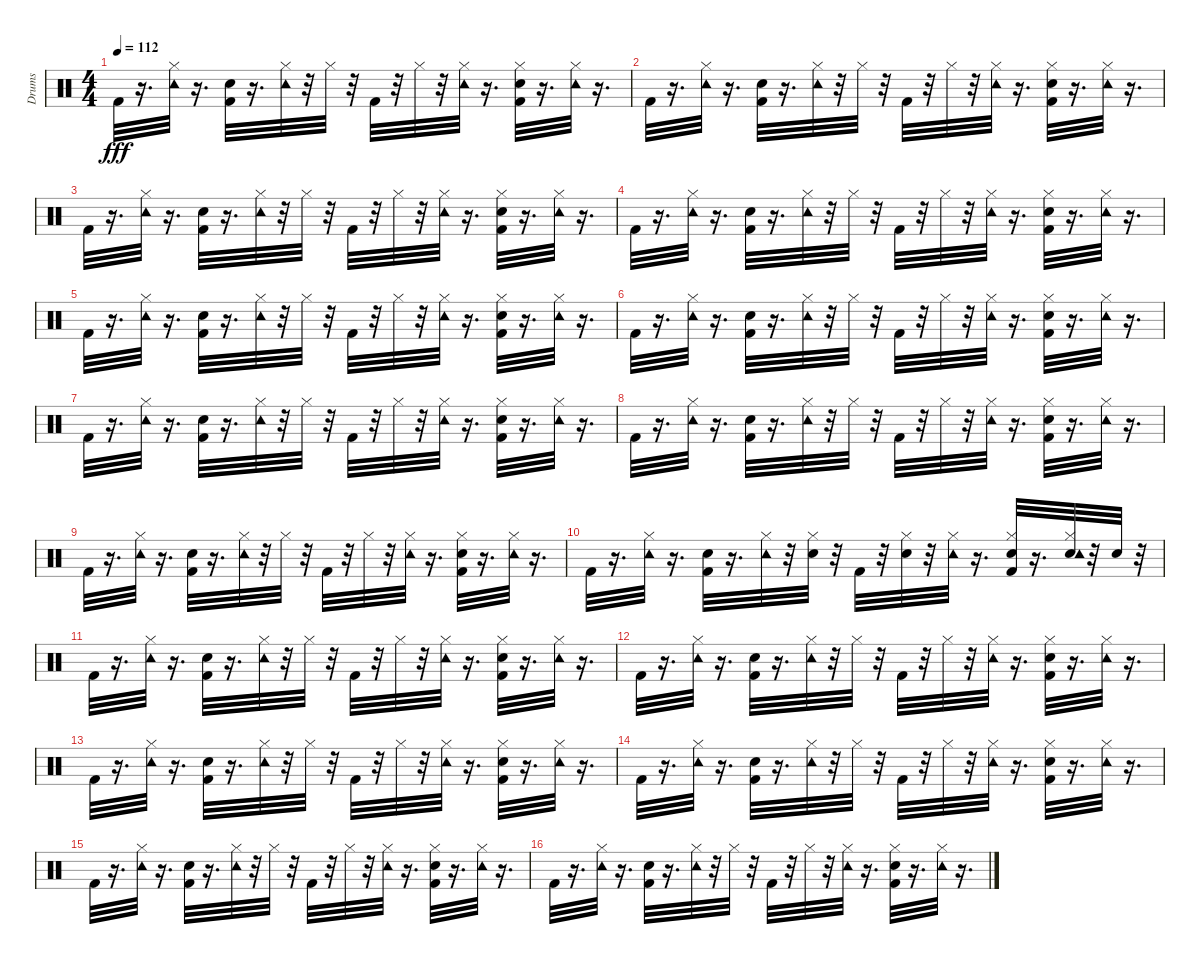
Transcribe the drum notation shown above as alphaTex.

\track ("Drums" "Drums") {instrument percussion}
\staff {score}
\articulation defaults
\ts (4 4)
\tempo 112
\clef neutral
\ks c "Kick (hit) 2".32{dy fff}
r.16{d} ("Tambourine (hit)" "Hi-Hat (closed)").32 r.16{d} ("Snare (hit) 2" "Kick (hit) 2").32 r.16{d} ("Tambourine (hit)" "Hi-Hat (closed)").32 r.32 "Hi-Hat (closed)".32 r.32 "Kick (hit) 2".32 r.32 "Hi-Hat (closed)".32 r.32 ("Tambourine (hit)" "Hi-Hat (closed)").32 r.16{d} ("Snare (hit) 2" "Hi-Hat (closed)" "Kick (hit) 2").32 r.16{d} ("Tambourine (hit)" "Hi-Hat (closed)").32 r.16{d} |
"Kick (hit) 2".32 r.16{d} ("Tambourine (hit)" "Hi-Hat (closed)").32 r.16{d} ("Snare (hit) 2" "Kick (hit) 2").32 r.16{d} ("Tambourine (hit)" "Hi-Hat (closed)").32 r.32 "Hi-Hat (closed)".32 r.32 "Kick (hit) 2".32 r.32 "Hi-Hat (closed)".32 r.32 ("Tambourine (hit)" "Hi-Hat (closed)").32 r.16{d} ("Snare (hit) 2" "Hi-Hat (closed)" "Kick (hit) 2").32 r.16{d} ("Tambourine (hit)" "Hi-Hat (closed)").32 r.16{d} |
"Kick (hit) 2".32{volume 16} r.16{d} ("Tambourine (hit)" "Hi-Hat (closed)").32 r.16{d} ("Snare (hit) 2" "Kick (hit) 2").32 r.16{d} ("Tambourine (hit)" "Hi-Hat (closed)").32 r.32 "Hi-Hat (closed)".32 r.32 "Kick (hit) 2".32 r.32 "Hi-Hat (closed)".32 r.32 ("Tambourine (hit)" "Hi-Hat (closed)").32 r.16{d} ("Snare (hit) 2" "Hi-Hat (closed)" "Kick (hit) 2").32 r.16{d} ("Tambourine (hit)" "Hi-Hat (closed)").32 r.16{d} |
"Kick (hit) 2".32 r.16{d} ("Tambourine (hit)" "Hi-Hat (closed)").32 r.16{d} ("Snare (hit) 2" "Kick (hit) 2").32 r.16{d} ("Tambourine (hit)" "Hi-Hat (closed)").32 r.32 "Hi-Hat (closed)".32 r.32 "Kick (hit) 2".32 r.32 "Hi-Hat (closed)".32 r.32 ("Tambourine (hit)" "Hi-Hat (closed)").32 r.16{d} ("Snare (hit) 2" "Hi-Hat (closed)" "Kick (hit) 2").32 r.16{d} ("Tambourine (hit)" "Hi-Hat (closed)").32 r.16{d} |
"Kick (hit) 2".32 r.16{d} ("Tambourine (hit)" "Hi-Hat (closed)").32 r.16{d} ("Snare (hit) 2" "Kick (hit) 2").32 r.16{d} ("Tambourine (hit)" "Hi-Hat (closed)").32 r.32 "Hi-Hat (closed)".32 r.32 "Kick (hit) 2".32 r.32 "Hi-Hat (closed)".32 r.32 ("Tambourine (hit)" "Hi-Hat (closed)").32 r.16{d} ("Snare (hit) 2" "Hi-Hat (closed)" "Kick (hit) 2").32 r.16{d} ("Tambourine (hit)" "Hi-Hat (closed)").32 r.16{d} |
"Kick (hit) 2".32 r.16{d} ("Tambourine (hit)" "Hi-Hat (closed)").32 r.16{d} ("Snare (hit) 2" "Kick (hit) 2").32 r.16{d} ("Tambourine (hit)" "Hi-Hat (closed)").32 r.32 "Hi-Hat (closed)".32 r.32 "Kick (hit) 2".32 r.32 "Hi-Hat (closed)".32 r.32 ("Tambourine (hit)" "Hi-Hat (closed)").32 r.16{d} ("Snare (hit) 2" "Hi-Hat (closed)" "Kick (hit) 2").32 r.16{d} ("Tambourine (hit)" "Hi-Hat (closed)").32 r.16{d} |
"Kick (hit) 2".32 r.16{d} ("Tambourine (hit)" "Hi-Hat (closed)").32 r.16{d} ("Snare (hit) 2" "Kick (hit) 2").32 r.16{d} ("Tambourine (hit)" "Hi-Hat (closed)").32 r.32 "Hi-Hat (closed)".32 r.32 "Kick (hit) 2".32 r.32 "Hi-Hat (closed)".32 r.32 ("Tambourine (hit)" "Hi-Hat (closed)").32 r.16{d} ("Snare (hit) 2" "Hi-Hat (closed)" "Kick (hit) 2").32 r.16{d} ("Tambourine (hit)" "Hi-Hat (closed)").32 r.16{d} |
"Kick (hit) 2".32 r.16{d} ("Tambourine (hit)" "Hi-Hat (closed)").32 r.16{d} ("Snare (hit) 2" "Kick (hit) 2").32 r.16{d} ("Tambourine (hit)" "Hi-Hat (closed)").32 r.32 "Hi-Hat (closed)".32 r.32 "Kick (hit) 2".32 r.32 "Hi-Hat (closed)".32 r.32 ("Tambourine (hit)" "Hi-Hat (closed)").32 r.16{d} ("Snare (hit) 2" "Hi-Hat (closed)" "Kick (hit) 2").32 r.16{d} ("Tambourine (hit)" "Hi-Hat (closed)").32 r.16{d} |
"Kick (hit) 2".32 r.16{d} ("Tambourine (hit)" "Hi-Hat (closed)").32 r.16{d} ("Snare (hit) 2" "Kick (hit) 2").32 r.16{d} ("Tambourine (hit)" "Hi-Hat (closed)").32 r.32 "Hi-Hat (closed)".32 r.32 "Kick (hit) 2".32 r.32 "Hi-Hat (closed)".32 r.32 ("Tambourine (hit)" "Hi-Hat (closed)").32 r.16{d} ("Snare (hit) 2" "Hi-Hat (closed)" "Kick (hit) 2").32 r.16{d} ("Tambourine (hit)" "Hi-Hat (closed)").32 r.16{d} |
"Kick (hit) 2".32 r.16{d} ("Tambourine (hit)" "Hi-Hat (closed)").32 r.16{d} ("Snare (hit) 2" "Kick (hit) 2").32 r.16{d} ("Tambourine (hit)" "Hi-Hat (closed)").32 r.32 ("Snare (hit) 2" "Hi-Hat (closed)").32 r.32 "Kick (hit) 2".32 r.32 ("Snare (hit) 2" "Hi-Hat (closed)").32 r.32 ("Tambourine (hit)" "Hi-Hat (closed)").32 r.16{d} ("Snare (hit) 2" "Hi-Hat (closed)" "Kick (hit) 2").32 r.16{d} ("Snare (hit) 2" "Tambourine (hit)" "Hi-Hat (closed)").32 r.32 "Snare (hit) 2".32 r.32 |
"Kick (hit) 2".32{volume 16} r.16{d} ("Tambourine (hit)" "Hi-Hat (closed)").32 r.16{d} ("Snare (hit) 2" "Kick (hit) 2").32 r.16{d} ("Tambourine (hit)" "Hi-Hat (closed)").32 r.32 "Hi-Hat (closed)".32 r.32 "Kick (hit) 2".32 r.32 "Hi-Hat (closed)".32 r.32 ("Tambourine (hit)" "Hi-Hat (closed)").32 r.16{d} ("Snare (hit) 2" "Hi-Hat (closed)" "Kick (hit) 2").32 r.16{d} ("Tambourine (hit)" "Hi-Hat (closed)").32 r.16{d} |
"Kick (hit) 2".32 r.16{d} ("Tambourine (hit)" "Hi-Hat (closed)").32 r.16{d} ("Snare (hit) 2" "Kick (hit) 2").32 r.16{d} ("Tambourine (hit)" "Hi-Hat (closed)").32 r.32 "Hi-Hat (closed)".32 r.32 "Kick (hit) 2".32 r.32 "Hi-Hat (closed)".32 r.32 ("Tambourine (hit)" "Hi-Hat (closed)").32 r.16{d} ("Snare (hit) 2" "Hi-Hat (closed)" "Kick (hit) 2").32 r.16{d} ("Tambourine (hit)" "Hi-Hat (closed)").32 r.16{d} |
"Kick (hit) 2".32 r.16{d} ("Tambourine (hit)" "Hi-Hat (closed)").32 r.16{d} ("Snare (hit) 2" "Kick (hit) 2").32 r.16{d} ("Tambourine (hit)" "Hi-Hat (closed)").32 r.32 "Hi-Hat (closed)".32 r.32 "Kick (hit) 2".32 r.32 "Hi-Hat (closed)".32 r.32 ("Tambourine (hit)" "Hi-Hat (closed)").32 r.16{d} ("Snare (hit) 2" "Hi-Hat (closed)" "Kick (hit) 2").32 r.16{d} ("Tambourine (hit)" "Hi-Hat (closed)").32 r.16{d} |
"Kick (hit) 2".32 r.16{d} ("Tambourine (hit)" "Hi-Hat (closed)").32 r.16{d} ("Snare (hit) 2" "Kick (hit) 2").32 r.16{d} ("Tambourine (hit)" "Hi-Hat (closed)").32 r.32 "Hi-Hat (closed)".32 r.32 "Kick (hit) 2".32 r.32 "Hi-Hat (closed)".32 r.32 ("Tambourine (hit)" "Hi-Hat (closed)").32 r.16{d} ("Snare (hit) 2" "Hi-Hat (closed)" "Kick (hit) 2").32 r.16{d} ("Tambourine (hit)" "Hi-Hat (closed)").32 r.16{d} |
"Kick (hit) 2".32 r.16{d} ("Tambourine (hit)" "Hi-Hat (closed)").32 r.16{d} ("Snare (hit) 2" "Kick (hit) 2").32 r.16{d} ("Tambourine (hit)" "Hi-Hat (closed)").32 r.32 "Hi-Hat (closed)".32 r.32 "Kick (hit) 2".32 r.32 "Hi-Hat (closed)".32 r.32 ("Tambourine (hit)" "Hi-Hat (closed)").32 r.16{d} ("Snare (hit) 2" "Hi-Hat (closed)" "Kick (hit) 2").32 r.16{d} ("Tambourine (hit)" "Hi-Hat (closed)").32 r.16{d} |
"Kick (hit) 2".32 r.16{d} ("Tambourine (hit)" "Hi-Hat (closed)").32 r.16{d} ("Snare (hit) 2" "Kick (hit) 2").32 r.16{d} ("Tambourine (hit)" "Hi-Hat (closed)").32 r.32 "Hi-Hat (closed)".32 r.32 "Kick (hit) 2".32 r.32 "Hi-Hat (closed)".32 r.32 ("Tambourine (hit)" "Hi-Hat (closed)").32 r.16{d} ("Snare (hit) 2" "Hi-Hat (closed)" "Kick (hit) 2").32 r.16{d} ("Tambourine (hit)" "Hi-Hat (closed)").32 r.16{d}
